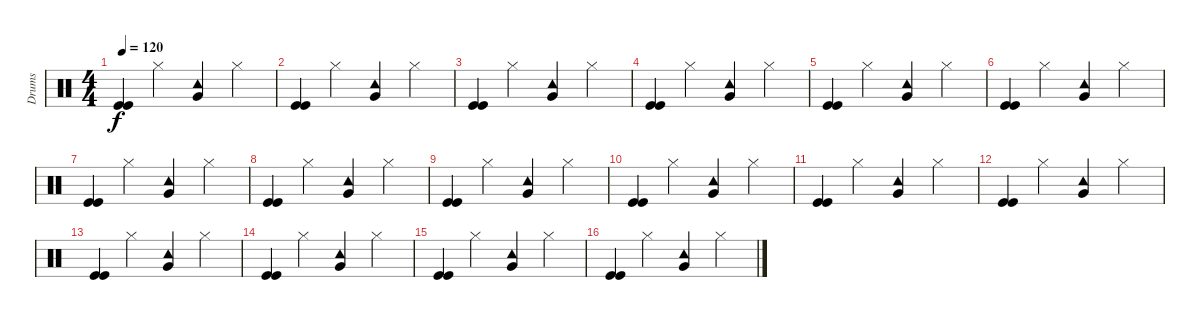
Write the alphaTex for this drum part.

\track ("Drums" "Drums") {instrument percussion}
\staff {score}
\articulation defaults
\ts (4 4)
\tempo 120
\clef neutral
\ks c
("Kick (hit)" "Kick (hit)").4{dy f} "Hi-Hat (closed)".4 ("Tambourine (hit)" "Very Low Tom (hit)").4 "Hi-Hat (closed)".4 |
("Kick (hit)" "Kick (hit)").4 "Hi-Hat (closed)".4 ("Tambourine (hit)" "Very Low Tom (hit)").4 "Hi-Hat (closed)".4 |
("Kick (hit)" "Kick (hit)").4 "Hi-Hat (closed)".4 ("Tambourine (hit)" "Very Low Tom (hit)").4 "Hi-Hat (closed)".4 |
("Kick (hit)" "Kick (hit)").4 "Hi-Hat (closed)".4 ("Tambourine (hit)" "Very Low Tom (hit)").4 "Hi-Hat (closed)".4 |
("Kick (hit)" "Kick (hit)").4 "Hi-Hat (closed)".4 ("Tambourine (hit)" "Very Low Tom (hit)").4 "Hi-Hat (closed)".4 |
("Kick (hit)" "Kick (hit)").4 "Hi-Hat (closed)".4 ("Tambourine (hit)" "Very Low Tom (hit)").4 "Hi-Hat (closed)".4 |
("Kick (hit)" "Kick (hit)").4 "Hi-Hat (closed)".4 ("Tambourine (hit)" "Very Low Tom (hit)").4 "Hi-Hat (closed)".4 |
("Kick (hit)" "Kick (hit)").4 "Hi-Hat (closed)".4 ("Tambourine (hit)" "Very Low Tom (hit)").4 "Hi-Hat (closed)".4 |
("Kick (hit)" "Kick (hit)").4 "Hi-Hat (closed)".4 ("Tambourine (hit)" "Very Low Tom (hit)").4 "Hi-Hat (closed)".4 |
("Kick (hit)" "Kick (hit)").4 "Hi-Hat (closed)".4 ("Tambourine (hit)" "Very Low Tom (hit)").4 "Hi-Hat (closed)".4 |
("Kick (hit)" "Kick (hit)").4 "Hi-Hat (closed)".4 ("Tambourine (hit)" "Very Low Tom (hit)").4 "Hi-Hat (closed)".4 |
("Kick (hit)" "Kick (hit)").4 "Hi-Hat (closed)".4 ("Tambourine (hit)" "Very Low Tom (hit)").4 "Hi-Hat (closed)".4 |
("Kick (hit)" "Kick (hit)").4 "Hi-Hat (closed)".4 ("Tambourine (hit)" "Very Low Tom (hit)").4 "Hi-Hat (closed)".4 |
("Kick (hit)" "Kick (hit)").4 "Hi-Hat (closed)".4 ("Tambourine (hit)" "Very Low Tom (hit)").4 "Hi-Hat (closed)".4 |
("Kick (hit)" "Kick (hit)").4 "Hi-Hat (closed)".4 ("Tambourine (hit)" "Very Low Tom (hit)").4 "Hi-Hat (closed)".4 |
("Kick (hit)" "Kick (hit)").4 "Hi-Hat (closed)".4 ("Tambourine (hit)" "Very Low Tom (hit)").4 "Hi-Hat (closed)".4
